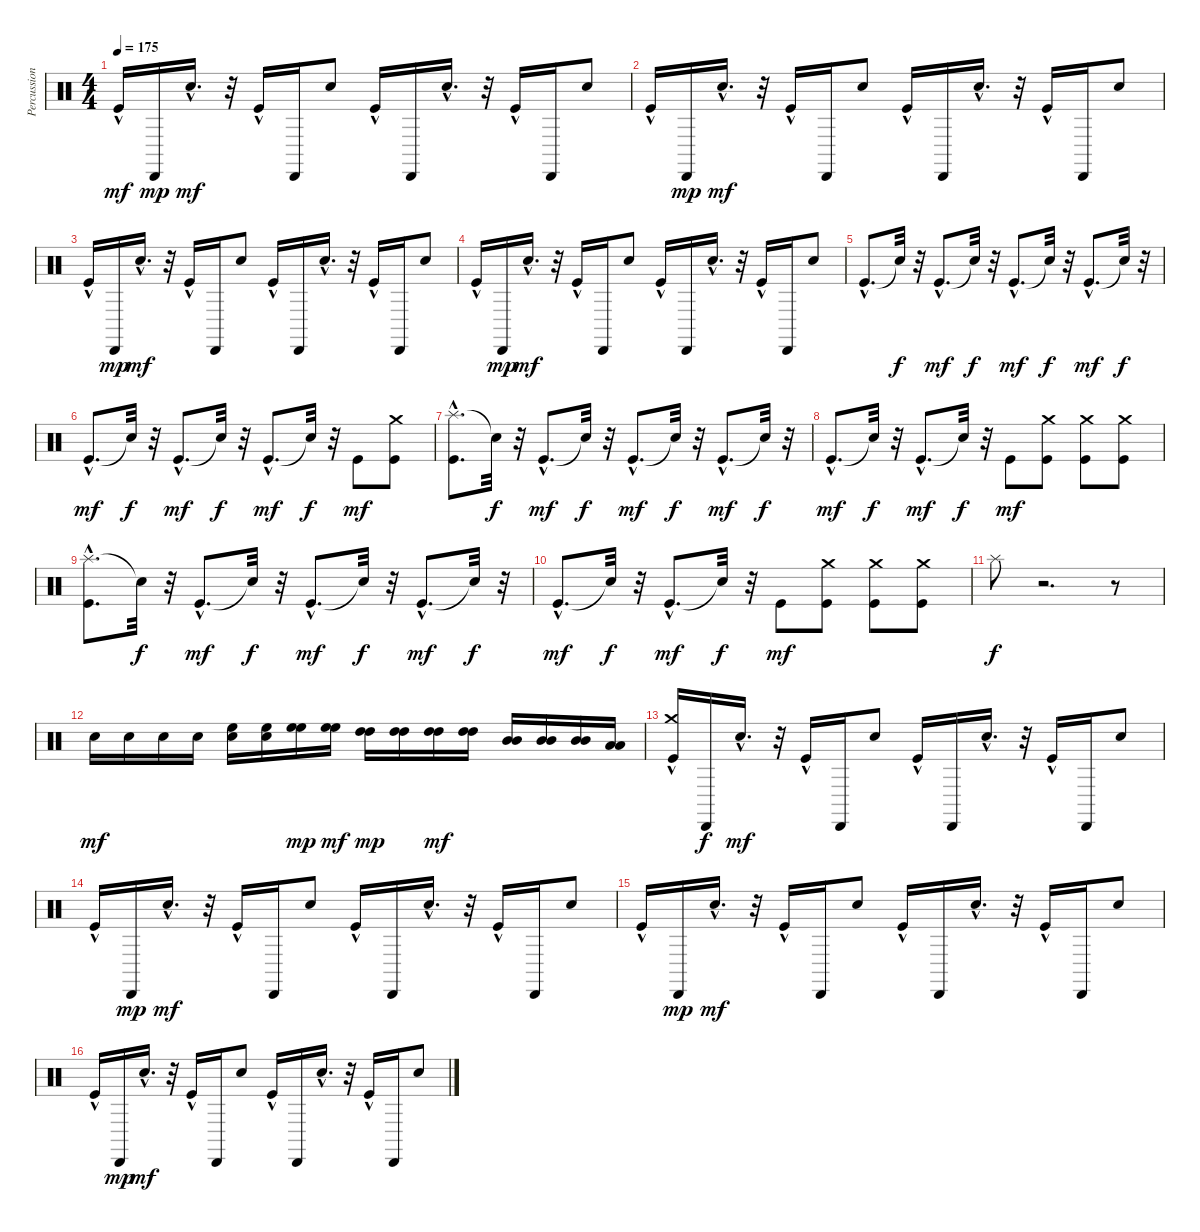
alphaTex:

\track ("Percussion" "Percussion") {instrument percussion}
\staff {score}
\articulation defaults
\ts (4 4)
\tempo 175
\clef neutral
\ks c "Kick (hit)"{hac}.16{dy mf} "Cabasa (hit)".16{dy mp} "Snare (hit) 2"{hac}.16{d dy mf}
r.32 "Kick (hit)"{hac}.16 "Cabasa (hit)".16 "Snare (hit) 2".8 "Kick (hit)"{hac}.16 "Cabasa (hit)".16 "Snare (hit) 2"{hac}.16{d} r.32 "Kick (hit)"{hac}.16 "Cabasa (hit)".16 "Snare (hit) 2".8 |
"Kick (hit)"{hac}.16 "Cabasa (hit)".16{dy mp} "Snare (hit) 2"{hac}.16{d dy mf} r.32 "Kick (hit)"{hac}.16 "Cabasa (hit)".16 "Snare (hit) 2".8 "Kick (hit)"{hac}.16 "Cabasa (hit)".16 "Snare (hit) 2"{hac}.16{d} r.32 "Kick (hit)"{hac}.16 "Cabasa (hit)".16 "Snare (hit) 2".8 |
"Kick (hit)"{hac}.16 "Cabasa (hit)".16{dy mp} "Snare (hit) 2"{hac}.16{d dy mf} r.32 "Kick (hit)"{hac}.16 "Cabasa (hit)".16 "Snare (hit) 2".8 "Kick (hit)"{hac}.16 "Cabasa (hit)".16 "Snare (hit) 2"{hac}.16{d} r.32 "Kick (hit)"{hac}.16 "Cabasa (hit)".16 "Snare (hit) 2".8 |
"Kick (hit)"{hac}.16 "Cabasa (hit)".16{dy mp} "Snare (hit) 2"{hac}.16{d dy mf} r.32 "Kick (hit)"{hac}.16 "Cabasa (hit)".16 "Snare (hit) 2".8 "Kick (hit)"{hac}.16 "Cabasa (hit)".16 "Snare (hit) 2"{hac}.16{d} r.32 "Kick (hit)"{hac}.16 "Cabasa (hit)".16 "Snare (hit) 2".8 |
"Kick (hit)"{hac}.8{d} "Snare (hit)"{t}.32{dy f} r.32 "Kick (hit)"{hac}.8{d dy mf} "Snare (hit)"{t}.32{dy f} r.32 "Kick (hit)"{hac}.8{d dy mf} "Snare (hit)"{t}.32{dy f} r.32 "Kick (hit)"{hac}.8{d dy mf} "Snare (hit)"{t}.32{dy f} r.32 |
"Kick (hit)"{hac}.8{d dy mf} "Snare (hit)"{t}.32{dy f} r.32 "Kick (hit)"{hac}.8{d dy mf} "Snare (hit)"{t}.32{dy f} r.32 "Kick (hit)"{hac}.8{d dy mf} "Snare (hit)"{t}.32{dy f} r.32 "Kick (hit)".8{dy mf} ("Crash medium (hit)" "Kick (hit)").8 |
("Splash (hit)" "Kick (hit)"{hac}).8{d} "Snare (hit)"{t}.32{dy f} r.32 "Kick (hit)"{hac}.8{d dy mf} "Snare (hit)"{t}.32{dy f} r.32 "Kick (hit)"{hac}.8{d dy mf} "Snare (hit)"{t}.32{dy f} r.32 "Kick (hit)"{hac}.8{d dy mf} "Snare (hit)"{t}.32{dy f} r.32 |
"Kick (hit)"{hac}.8{d dy mf} "Snare (hit)"{t}.32{dy f} r.32 "Kick (hit)"{hac}.8{d dy mf} "Snare (hit)"{t}.32{dy f} r.32 "Kick (hit)".8{dy mf} ("Crash medium (hit)" "Kick (hit)").8 ("Crash medium (hit)" "Kick (hit)").8 ("Crash medium (hit)" "Kick (hit)").8 |
("Splash (hit)" "Kick (hit)"{hac}).8{d} "Snare (hit)"{t}.32{dy f} r.32 "Kick (hit)"{hac}.8{d dy mf} "Snare (hit)"{t}.32{dy f} r.32 "Kick (hit)"{hac}.8{d dy mf} "Snare (hit)"{t}.32{dy f} r.32 "Kick (hit)"{hac}.8{d dy mf} "Snare (hit)"{t}.32{dy f} r.32 |
"Kick (hit)"{hac}.8{d dy mf} "Snare (hit)"{t}.32{dy f} r.32 "Kick (hit)"{hac}.8{d dy mf} "Snare (hit)"{t}.32{dy f} r.32 "Kick (hit)".8{dy mf} ("Crash medium (hit)" "Kick (hit)").8 ("Crash medium (hit)" "Kick (hit)").8 ("Crash medium (hit)" "Kick (hit)").8 |
"Splash (hit)".8{dy f} r.2{d} r.8 |
"Snare (hit) 2".16{dy mf} "Snare (hit) 2".16 "Snare (hit) 2".16 "Snare (hit) 2".16 ("Snare (hit) 2" "High Floor Tom (hit)").16 ("Snare (hit) 2" "High Floor Tom (hit)").16 ("High Floor Tom (hit)" "High Floor Tom (hit)").16{dy mp} ("High Floor Tom (hit)" "High Floor Tom (hit)").16{dy mf} ("High Tom (hit)" "High Tom (hit)").16{dy mp} ("High Tom (hit)" "High Tom (hit)").16 ("High Tom (hit)" "High Tom (hit)").16{dy mf} ("High Tom (hit)" "High Tom (hit)").16 ("Mid Tom (hit)" "Mid Tom (hit)").16 ("Mid Tom (hit)" "Mid Tom (hit)").16 ("Mid Tom (hit)" "Mid Tom (hit)").16 ("Low Tom (hit)" "Low Tom (hit)").16 |
("Crash medium (hit)" "Kick (hit)"{hac}).16 "Cabasa (hit)".16{dy f} "Snare (hit) 2"{hac}.16{d dy mf} r.32 "Kick (hit)"{hac}.16 "Cabasa (hit)".16 "Snare (hit) 2".8 "Kick (hit)"{hac}.16 "Cabasa (hit)".16 "Snare (hit) 2"{hac}.16{d} r.32 "Kick (hit)"{hac}.16 "Cabasa (hit)".16 "Snare (hit) 2".8 |
"Kick (hit)"{hac}.16 "Cabasa (hit)".16{dy mp} "Snare (hit) 2"{hac}.16{d dy mf} r.32 "Kick (hit)"{hac}.16 "Cabasa (hit)".16 "Snare (hit) 2".8 "Kick (hit)"{hac}.16 "Cabasa (hit)".16 "Snare (hit) 2"{hac}.16{d} r.32 "Kick (hit)"{hac}.16 "Cabasa (hit)".16 "Snare (hit) 2".8 |
"Kick (hit)"{hac}.16 "Cabasa (hit)".16{dy mp} "Snare (hit) 2"{hac}.16{d dy mf} r.32 "Kick (hit)"{hac}.16 "Cabasa (hit)".16 "Snare (hit) 2".8 "Kick (hit)"{hac}.16 "Cabasa (hit)".16 "Snare (hit) 2"{hac}.16{d} r.32 "Kick (hit)"{hac}.16 "Cabasa (hit)".16 "Snare (hit) 2".8 |
"Kick (hit)"{hac}.16 "Cabasa (hit)".16{dy mp} "Snare (hit) 2"{hac}.16{d dy mf} r.32 "Kick (hit)"{hac}.16 "Cabasa (hit)".16 "Snare (hit) 2".8 "Kick (hit)"{hac}.16 "Cabasa (hit)".16 "Snare (hit) 2"{hac}.16{d} r.32 "Kick (hit)"{hac}.16 "Cabasa (hit)".16 "Snare (hit) 2".8
